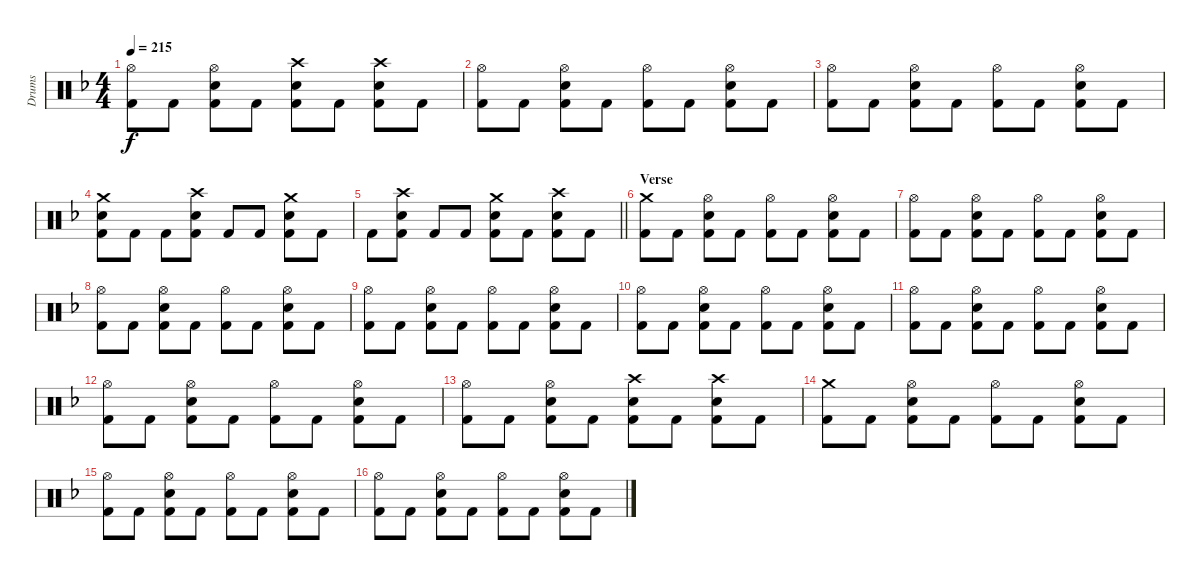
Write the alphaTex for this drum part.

\track ("Drums" "Drums") {instrument percussion}
\staff {score}
\articulation defaults
\ts (4 4)
\tempo 215
\clef neutral
\ks f
("Hi-Hat (open)" "Kick (hit) 2").8{dy f} "Kick (hit) 2".8 ("Hi-Hat (open)" "Snare (hit) 2" "Kick (hit) 2").8 "Kick (hit) 2".8 ("Crash high (hit)" "Snare (hit) 2" "Kick (hit) 2").8 "Kick (hit) 2".8 ("Crash high (hit)" "Snare (hit) 2" "Kick (hit) 2").8 "Kick (hit) 2".8 |
("Hi-Hat (open)" "Kick (hit) 2").8 "Kick (hit) 2".8 ("Hi-Hat (open)" "Snare (hit) 2" "Kick (hit) 2").8 "Kick (hit) 2".8 ("Hi-Hat (open)" "Kick (hit) 2").8 "Kick (hit) 2".8 ("Hi-Hat (open)" "Snare (hit) 2" "Kick (hit) 2").8 "Kick (hit) 2".8 |
("Hi-Hat (open)" "Kick (hit) 2").8 "Kick (hit) 2".8 ("Hi-Hat (open)" "Snare (hit) 2" "Kick (hit) 2").8 "Kick (hit) 2".8 ("Hi-Hat (open)" "Kick (hit) 2").8 "Kick (hit) 2".8 ("Hi-Hat (open)" "Snare (hit) 2" "Kick (hit) 2").8 "Kick (hit) 2".8 |
("Crash medium (hit)" "Snare (hit) 2" "Kick (hit) 2").8 "Kick (hit) 2".8 "Kick (hit) 2".8 ("Crash high (hit)" "Snare (hit) 2" "Kick (hit) 2").8 "Kick (hit) 2".8 "Kick (hit) 2".8 ("Crash medium (hit)" "Snare (hit) 2" "Kick (hit) 2").8 "Kick (hit) 2".8 |
\barLineRight lightlight "Kick (hit) 2".8
("Crash high (hit)" "Snare (hit) 2" "Kick (hit) 2").8 "Kick (hit) 2".8 "Kick (hit) 2".8 ("Crash medium (hit)" "Snare (hit) 2" "Kick (hit) 2").8 "Kick (hit) 2".8 ("Crash high (hit)" "Snare (hit) 2" "Kick (hit) 2").8 "Kick (hit) 2".8 |
\section ("" "Verse")
("Crash medium (hit)" "Kick (hit) 2").8 "Kick (hit) 2".8 ("Hi-Hat (open)" "Snare (hit) 2" "Kick (hit) 2").8 "Kick (hit) 2".8 ("Hi-Hat (open)" "Kick (hit) 2").8 "Kick (hit) 2".8 ("Hi-Hat (open)" "Snare (hit) 2" "Kick (hit) 2").8 "Kick (hit) 2".8 |
("Hi-Hat (open)" "Kick (hit) 2").8 "Kick (hit) 2".8 ("Hi-Hat (open)" "Snare (hit) 2" "Kick (hit) 2").8 "Kick (hit) 2".8 ("Hi-Hat (open)" "Kick (hit) 2").8 "Kick (hit) 2".8 ("Hi-Hat (open)" "Snare (hit) 2" "Kick (hit) 2").8 "Kick (hit) 2".8 |
("Hi-Hat (open)" "Kick (hit) 2").8 "Kick (hit) 2".8 ("Hi-Hat (open)" "Snare (hit) 2" "Kick (hit) 2").8 "Kick (hit) 2".8 ("Hi-Hat (open)" "Kick (hit) 2").8 "Kick (hit) 2".8 ("Hi-Hat (open)" "Snare (hit) 2" "Kick (hit) 2").8 "Kick (hit) 2".8 |
("Hi-Hat (open)" "Kick (hit) 2").8 "Kick (hit) 2".8 ("Hi-Hat (open)" "Snare (hit) 2" "Kick (hit) 2").8 "Kick (hit) 2".8 ("Hi-Hat (open)" "Kick (hit) 2").8 "Kick (hit) 2".8 ("Hi-Hat (open)" "Snare (hit) 2" "Kick (hit) 2").8 "Kick (hit) 2".8 |
("Hi-Hat (open)" "Kick (hit) 2").8 "Kick (hit) 2".8 ("Hi-Hat (open)" "Snare (hit) 2" "Kick (hit) 2").8 "Kick (hit) 2".8 ("Hi-Hat (open)" "Kick (hit) 2").8 "Kick (hit) 2".8 ("Hi-Hat (open)" "Snare (hit) 2" "Kick (hit) 2").8 "Kick (hit) 2".8 |
("Hi-Hat (open)" "Kick (hit) 2").8 "Kick (hit) 2".8 ("Hi-Hat (open)" "Snare (hit) 2" "Kick (hit) 2").8 "Kick (hit) 2".8 ("Hi-Hat (open)" "Kick (hit) 2").8 "Kick (hit) 2".8 ("Hi-Hat (open)" "Snare (hit) 2" "Kick (hit) 2").8 "Kick (hit) 2".8 |
("Hi-Hat (open)" "Kick (hit) 2").8 "Kick (hit) 2".8 ("Hi-Hat (open)" "Snare (hit) 2" "Kick (hit) 2").8 "Kick (hit) 2".8 ("Hi-Hat (open)" "Kick (hit) 2").8 "Kick (hit) 2".8 ("Hi-Hat (open)" "Snare (hit) 2" "Kick (hit) 2").8 "Kick (hit) 2".8 |
("Hi-Hat (open)" "Kick (hit) 2").8 "Kick (hit) 2".8 ("Hi-Hat (open)" "Snare (hit) 2" "Kick (hit) 2").8 "Kick (hit) 2".8 ("Crash high (hit)" "Snare (hit) 2" "Kick (hit) 2").8 "Kick (hit) 2".8 ("Crash high (hit)" "Snare (hit) 2" "Kick (hit) 2").8 "Kick (hit) 2".8 |
("Crash medium (hit)" "Kick (hit) 2").8 "Kick (hit) 2".8 ("Hi-Hat (open)" "Snare (hit) 2" "Kick (hit) 2").8 "Kick (hit) 2".8 ("Hi-Hat (open)" "Kick (hit) 2").8 "Kick (hit) 2".8 ("Hi-Hat (open)" "Snare (hit) 2" "Kick (hit) 2").8 "Kick (hit) 2".8 |
("Hi-Hat (open)" "Kick (hit) 2").8 "Kick (hit) 2".8 ("Hi-Hat (open)" "Snare (hit) 2" "Kick (hit) 2").8 "Kick (hit) 2".8 ("Hi-Hat (open)" "Kick (hit) 2").8 "Kick (hit) 2".8 ("Hi-Hat (open)" "Snare (hit) 2" "Kick (hit) 2").8 "Kick (hit) 2".8 |
("Hi-Hat (open)" "Kick (hit) 2").8 "Kick (hit) 2".8 ("Hi-Hat (open)" "Snare (hit) 2" "Kick (hit) 2").8 "Kick (hit) 2".8 ("Hi-Hat (open)" "Kick (hit) 2").8 "Kick (hit) 2".8 ("Hi-Hat (open)" "Snare (hit) 2" "Kick (hit) 2").8 "Kick (hit) 2".8
